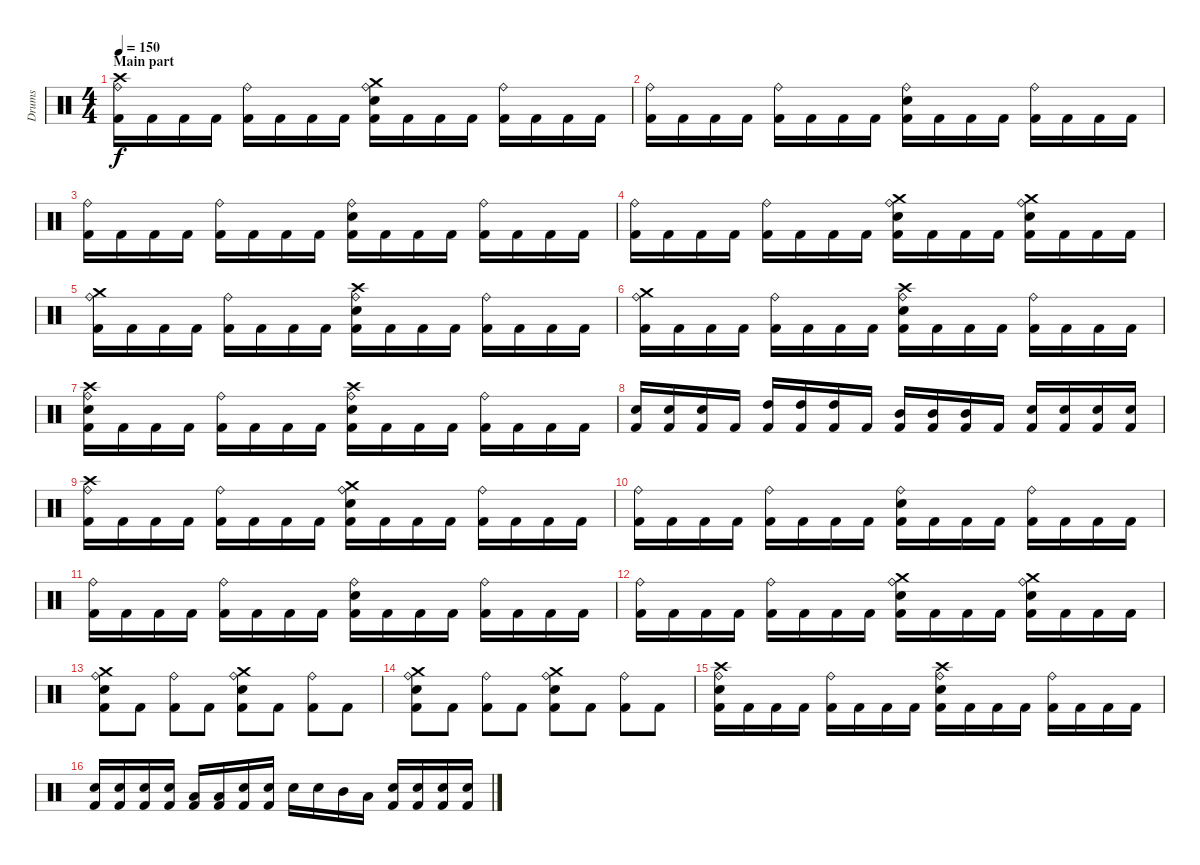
\track ("Drums" "Drums") {instrument percussion}
\staff {score}
\articulation defaults
\ts (4 4)
\section ("" "Main part")
\tempo 150
\clef neutral
\ks c
("Crash high (hit)" "Ride (bell)" "Kick (hit) 2").16{dy f} "Kick (hit) 2".16 "Kick (hit) 2".16 "Kick (hit) 2".16 ("Ride (bell)" "Kick (hit) 2").16 "Kick (hit) 2".16 "Kick (hit) 2".16 "Kick (hit) 2".16 ("Crash medium (hit)" "Ride (bell)" "Electric Snare (hit)" "Kick (hit) 2").16 "Kick (hit) 2".16 "Kick (hit) 2".16 "Kick (hit) 2".16 ("Ride (bell)" "Kick (hit) 2").16 "Kick (hit) 2".16 "Kick (hit) 2".16 "Kick (hit) 2".16 |
("Ride (bell)" "Kick (hit) 2").16 "Kick (hit) 2".16 "Kick (hit) 2".16 "Kick (hit) 2".16 ("Ride (bell)" "Kick (hit) 2").16 "Kick (hit) 2".16 "Kick (hit) 2".16 "Kick (hit) 2".16 ("Ride (bell)" "Electric Snare (hit)" "Kick (hit) 2").16 "Kick (hit) 2".16 "Kick (hit) 2".16 "Kick (hit) 2".16 ("Ride (bell)" "Kick (hit) 2").16 "Kick (hit) 2".16 "Kick (hit) 2".16 "Kick (hit) 2".16 |
("Ride (bell)" "Kick (hit) 2").16 "Kick (hit) 2".16 "Kick (hit) 2".16 "Kick (hit) 2".16 ("Ride (bell)" "Kick (hit) 2").16 "Kick (hit) 2".16 "Kick (hit) 2".16 "Kick (hit) 2".16 ("Ride (bell)" "Electric Snare (hit)" "Kick (hit) 2").16 "Kick (hit) 2".16 "Kick (hit) 2".16 "Kick (hit) 2".16 ("Ride (bell)" "Kick (hit) 2").16 "Kick (hit) 2".16 "Kick (hit) 2".16 "Kick (hit) 2".16 |
("Ride (bell)" "Kick (hit) 2").16 "Kick (hit) 2".16 "Kick (hit) 2".16 "Kick (hit) 2".16 ("Ride (bell)" "Kick (hit) 2").16 "Kick (hit) 2".16 "Kick (hit) 2".16 "Kick (hit) 2".16 ("Crash medium (hit)" "Ride (bell)" "Electric Snare (hit)" "Kick (hit) 2").16 "Kick (hit) 2".16 "Kick (hit) 2".16 "Kick (hit) 2".16 ("Crash medium (hit)" "Ride (bell)" "Electric Snare (hit)" "Kick (hit) 2").16 "Kick (hit) 2".16 "Kick (hit) 2".16 "Kick (hit) 2".16 |
("Crash medium (hit)" "Ride (bell)" "Kick (hit) 2").16 "Kick (hit) 2".16 "Kick (hit) 2".16 "Kick (hit) 2".16 ("Ride (bell)" "Kick (hit) 2").16 "Kick (hit) 2".16 "Kick (hit) 2".16 "Kick (hit) 2".16 ("Crash high (hit)" "Ride (bell)" "Electric Snare (hit)" "Kick (hit) 2").16 "Kick (hit) 2".16 "Kick (hit) 2".16 "Kick (hit) 2".16 ("Ride (bell)" "Kick (hit) 2").16 "Kick (hit) 2".16 "Kick (hit) 2".16 "Kick (hit) 2".16 |
("Crash medium (hit)" "Ride (bell)" "Kick (hit) 2").16 "Kick (hit) 2".16 "Kick (hit) 2".16 "Kick (hit) 2".16 ("Ride (bell)" "Kick (hit) 2").16 "Kick (hit) 2".16 "Kick (hit) 2".16 "Kick (hit) 2".16 ("Crash high (hit)" "Ride (bell)" "Electric Snare (hit)" "Kick (hit) 2").16 "Kick (hit) 2".16 "Kick (hit) 2".16 "Kick (hit) 2".16 ("Ride (bell)" "Kick (hit) 2").16 "Kick (hit) 2".16 "Kick (hit) 2".16 "Kick (hit) 2".16 |
("Crash high (hit)" "Ride (bell)" "Electric Snare (hit)" "Kick (hit) 2").16 "Kick (hit) 2".16 "Kick (hit) 2".16 "Kick (hit) 2".16 ("Ride (bell)" "Kick (hit) 2").16 "Kick (hit) 2".16 "Kick (hit) 2".16 "Kick (hit) 2".16 ("Crash high (hit)" "Ride (bell)" "Electric Snare (hit)" "Kick (hit) 2").16 "Kick (hit) 2".16 "Kick (hit) 2".16 "Kick (hit) 2".16 ("Ride (bell)" "Kick (hit) 2").16 "Kick (hit) 2".16 "Kick (hit) 2".16 "Kick (hit) 2".16 |
("Electric Snare (hit)" "Kick (hit) 2").16 ("Electric Snare (hit)" "Kick (hit) 2").16 ("Electric Snare (hit)" "Kick (hit) 2").16 "Kick (hit) 2".16 ("High Tom (hit)" "Kick (hit) 2").16 ("High Tom (hit)" "Kick (hit) 2").16 ("High Tom (hit)" "Kick (hit) 2").16 "Kick (hit) 2".16 ("Mid Tom (hit)" "Kick (hit) 2").16 ("Mid Tom (hit)" "Kick (hit) 2").16 ("Mid Tom (hit)" "Kick (hit) 2").16 "Kick (hit) 2".16 ("Electric Snare (hit)" "Kick (hit) 2").16 ("Electric Snare (hit)" "Kick (hit) 2").16 ("Electric Snare (hit)" "Kick (hit) 2").16 ("Electric Snare (hit)" "Kick (hit) 2").16 |
("Crash high (hit)" "Ride (bell)" "Kick (hit) 2").16 "Kick (hit) 2".16 "Kick (hit) 2".16 "Kick (hit) 2".16 ("Ride (bell)" "Kick (hit) 2").16 "Kick (hit) 2".16 "Kick (hit) 2".16 "Kick (hit) 2".16 ("Crash medium (hit)" "Ride (bell)" "Electric Snare (hit)" "Kick (hit) 2").16 "Kick (hit) 2".16 "Kick (hit) 2".16 "Kick (hit) 2".16 ("Ride (bell)" "Kick (hit) 2").16 "Kick (hit) 2".16 "Kick (hit) 2".16 "Kick (hit) 2".16 |
("Ride (bell)" "Kick (hit) 2").16 "Kick (hit) 2".16 "Kick (hit) 2".16 "Kick (hit) 2".16 ("Ride (bell)" "Kick (hit) 2").16 "Kick (hit) 2".16 "Kick (hit) 2".16 "Kick (hit) 2".16 ("Ride (bell)" "Electric Snare (hit)" "Kick (hit) 2").16 "Kick (hit) 2".16 "Kick (hit) 2".16 "Kick (hit) 2".16 ("Ride (bell)" "Kick (hit) 2").16 "Kick (hit) 2".16 "Kick (hit) 2".16 "Kick (hit) 2".16 |
("Ride (bell)" "Kick (hit) 2").16 "Kick (hit) 2".16 "Kick (hit) 2".16 "Kick (hit) 2".16 ("Ride (bell)" "Kick (hit) 2").16 "Kick (hit) 2".16 "Kick (hit) 2".16 "Kick (hit) 2".16 ("Ride (bell)" "Electric Snare (hit)" "Kick (hit) 2").16 "Kick (hit) 2".16 "Kick (hit) 2".16 "Kick (hit) 2".16 ("Ride (bell)" "Kick (hit) 2").16 "Kick (hit) 2".16 "Kick (hit) 2".16 "Kick (hit) 2".16 |
("Ride (bell)" "Kick (hit) 2").16 "Kick (hit) 2".16 "Kick (hit) 2".16 "Kick (hit) 2".16 ("Ride (bell)" "Kick (hit) 2").16 "Kick (hit) 2".16 "Kick (hit) 2".16 "Kick (hit) 2".16 ("Crash medium (hit)" "Ride (bell)" "Electric Snare (hit)" "Kick (hit) 2").16 "Kick (hit) 2".16 "Kick (hit) 2".16 "Kick (hit) 2".16 ("Crash medium (hit)" "Ride (bell)" "Electric Snare (hit)" "Kick (hit) 2").16 "Kick (hit) 2".16 "Kick (hit) 2".16 "Kick (hit) 2".16 |
("Crash medium (hit)" "Ride (bell)" "Electric Snare (hit)" "Kick (hit) 2").8 "Kick (hit) 2".8 ("Ride (bell)" "Kick (hit) 2").8 "Kick (hit) 2".8 ("Crash medium (hit)" "Ride (bell)" "Electric Snare (hit)" "Kick (hit) 2").8 "Kick (hit) 2".8 ("Ride (bell)" "Kick (hit) 2").8 "Kick (hit) 2".8 |
("Crash medium (hit)" "Ride (bell)" "Electric Snare (hit)" "Kick (hit) 2").8 "Kick (hit) 2".8 ("Ride (bell)" "Kick (hit) 2").8 "Kick (hit) 2".8 ("Crash medium (hit)" "Ride (bell)" "Electric Snare (hit)" "Kick (hit) 2").8 "Kick (hit) 2".8 ("Ride (bell)" "Kick (hit) 2").8 "Kick (hit) 2".8 |
("Crash high (hit)" "Ride (bell)" "Electric Snare (hit)" "Kick (hit) 2").16 "Kick (hit) 2".16 "Kick (hit) 2".16 "Kick (hit) 2".16 ("Ride (bell)" "Kick (hit) 2").16 "Kick (hit) 2".16 "Kick (hit) 2".16 "Kick (hit) 2".16 ("Crash high (hit)" "Ride (bell)" "Electric Snare (hit)" "Kick (hit) 2").16 "Kick (hit) 2".16 "Kick (hit) 2".16 "Kick (hit) 2".16 ("Ride (bell)" "Kick (hit) 2").16 "Kick (hit) 2".16 "Kick (hit) 2".16 "Kick (hit) 2".16 |
("Electric Snare (hit)" "Kick (hit) 2").16 ("Electric Snare (hit)" "Kick (hit) 2").16 ("Electric Snare (hit)" "Kick (hit) 2").16 ("Electric Snare (hit)" "Kick (hit) 2").16 ("Low Tom (hit)" "Kick (hit) 2").16 ("Low Tom (hit)" "Kick (hit) 2").16 ("Electric Snare (hit)" "Kick (hit) 2").16 ("Electric Snare (hit)" "Kick (hit) 2").16 "Electric Snare (hit)".16 "Electric Snare (hit)".16 "Mid Tom (hit)".16 "Low Tom (hit)".16 ("Electric Snare (hit)" "Kick (hit) 2").16 ("Electric Snare (hit)" "Kick (hit) 2").16 ("Electric Snare (hit)" "Kick (hit) 2").16 ("Electric Snare (hit)" "Kick (hit) 2").16
